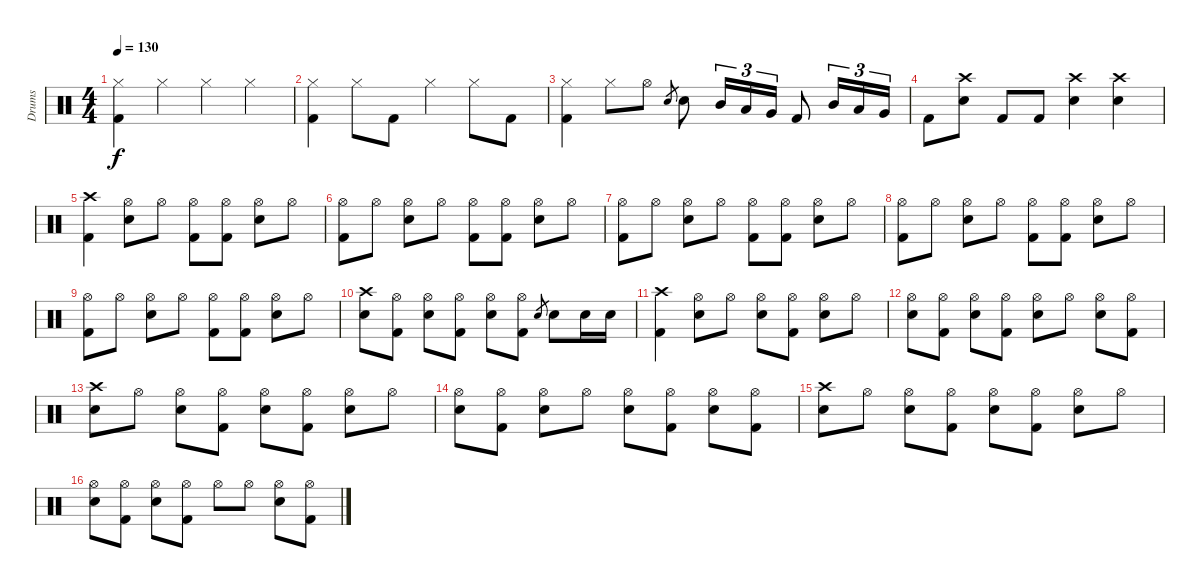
\track ("Drums" "Drums") {instrument percussion}
\staff {score}
\articulation defaults
\ts (4 4)
\tempo 130
\clef neutral
\ks c
("Hi-Hat (closed)" "Kick (hit) 2").4{dy f} "Hi-Hat (closed)".4 "Hi-Hat (closed)".4 "Hi-Hat (closed)".4 |
("Hi-Hat (closed)" "Kick (hit) 2").4 "Hi-Hat (closed)".8 "Kick (hit) 2".8 "Hi-Hat (closed)".4 "Hi-Hat (closed)".8 "Kick (hit) 2".8 |
("Hi-Hat (closed)" "Kick (hit) 2").4 "Hi-Hat (closed)".8 "Hi-Hat (open)".8 "Electric Snare (hit)".8{gr} "Electric Snare (hit)".8 "Mid Tom (hit)".16{tu (3 2)} "Low Tom (hit)".16{tu (3 2)} "Very Low Tom (hit)".16{tu (3 2)} "Kick (hit) 2".8 "Mid Tom (hit)".16{tu (3 2)} "Low Tom (hit)".16{tu (3 2)} "Very Low Tom (hit)".16{tu (3 2)} |
"Kick (hit) 2".8 ("Crash high (hit)" "Electric Snare (hit)").8 "Kick (hit) 2".8 "Kick (hit) 2".8 ("Crash high (hit)" "Electric Snare (hit)").4 ("Crash high (hit)" "Electric Snare (hit)").4 |
("Crash high (hit)" "Kick (hit) 2").4 ("Hi-Hat (open)" "Electric Snare (hit)").8 "Hi-Hat (open)".8 ("Hi-Hat (open)" "Kick (hit) 2").8 ("Hi-Hat (open)" "Kick (hit) 2").8 ("Hi-Hat (open)" "Electric Snare (hit)").8 "Hi-Hat (open)".8 |
("Hi-Hat (open)" "Kick (hit) 2").8 "Hi-Hat (open)".8 ("Hi-Hat (open)" "Electric Snare (hit)").8 "Hi-Hat (open)".8 ("Hi-Hat (open)" "Kick (hit) 2").8 ("Hi-Hat (open)" "Kick (hit) 2").8 ("Hi-Hat (open)" "Electric Snare (hit)").8 "Hi-Hat (open)".8 |
("Hi-Hat (open)" "Kick (hit) 2").8 "Hi-Hat (open)".8 ("Hi-Hat (open)" "Electric Snare (hit)").8 "Hi-Hat (open)".8 ("Hi-Hat (open)" "Kick (hit) 2").8 ("Hi-Hat (open)" "Kick (hit) 2").8 ("Hi-Hat (open)" "Electric Snare (hit)").8 "Hi-Hat (open)".8 |
("Hi-Hat (open)" "Kick (hit) 2").8 "Hi-Hat (open)".8 ("Hi-Hat (open)" "Electric Snare (hit)").8 "Hi-Hat (open)".8 ("Hi-Hat (open)" "Kick (hit) 2").8 ("Hi-Hat (open)" "Kick (hit) 2").8 ("Hi-Hat (open)" "Electric Snare (hit)").8 "Hi-Hat (open)".8 |
("Hi-Hat (open)" "Kick (hit) 2").8 "Hi-Hat (open)".8 ("Hi-Hat (open)" "Electric Snare (hit)").8 "Hi-Hat (open)".8 ("Hi-Hat (open)" "Kick (hit) 2").8 ("Hi-Hat (open)" "Kick (hit) 2").8 ("Hi-Hat (open)" "Electric Snare (hit)").8 "Hi-Hat (open)".8 |
("Crash high (hit)" "Electric Snare (hit)").8 ("Hi-Hat (open)" "Kick (hit) 2").8 ("Hi-Hat (open)" "Electric Snare (hit)").8 ("Hi-Hat (open)" "Kick (hit) 2").8 ("Hi-Hat (open)" "Electric Snare (hit)").8 ("Hi-Hat (open)" "Kick (hit) 2").8 "Electric Snare (hit)".8{gr} "Electric Snare (hit)".8 "Electric Snare (hit)".16 "Electric Snare (hit)".16 |
("Crash high (hit)" "Kick (hit) 2").4 ("Hi-Hat (open)" "Electric Snare (hit)").8 "Hi-Hat (open)".8 ("Hi-Hat (open)" "Electric Snare (hit)").8 ("Hi-Hat (open)" "Kick (hit) 2").8 ("Hi-Hat (open)" "Electric Snare (hit)").8 "Hi-Hat (open)".8 |
("Hi-Hat (open)" "Electric Snare (hit)").8 ("Hi-Hat (open)" "Kick (hit) 2").8 ("Hi-Hat (open)" "Electric Snare (hit)").8 ("Hi-Hat (open)" "Kick (hit) 2").8 ("Hi-Hat (open)" "Electric Snare (hit)").8 "Hi-Hat (open)".8 ("Hi-Hat (open)" "Electric Snare (hit)").8 ("Hi-Hat (open)" "Kick (hit) 2").8 |
("Crash high (hit)" "Electric Snare (hit)").8 "Hi-Hat (open)".8 ("Hi-Hat (open)" "Electric Snare (hit)").8 ("Hi-Hat (open)" "Kick (hit) 2").8 ("Hi-Hat (open)" "Electric Snare (hit)").8 ("Hi-Hat (open)" "Kick (hit) 2").8 ("Hi-Hat (open)" "Electric Snare (hit)").8 "Hi-Hat (open)".8 |
("Hi-Hat (open)" "Electric Snare (hit)").8 ("Hi-Hat (open)" "Kick (hit) 2").8 ("Hi-Hat (open)" "Electric Snare (hit)").8 "Hi-Hat (open)".8 ("Hi-Hat (open)" "Electric Snare (hit)").8 ("Hi-Hat (open)" "Kick (hit) 2").8 ("Hi-Hat (open)" "Electric Snare (hit)").8 ("Hi-Hat (open)" "Kick (hit) 2").8 |
("Crash high (hit)" "Electric Snare (hit)").8 "Hi-Hat (open)".8 ("Hi-Hat (open)" "Electric Snare (hit)").8 ("Hi-Hat (open)" "Kick (hit) 2").8 ("Hi-Hat (open)" "Electric Snare (hit)").8 ("Hi-Hat (open)" "Kick (hit) 2").8 ("Hi-Hat (open)" "Electric Snare (hit)").8 "Hi-Hat (open)".8 |
("Hi-Hat (open)" "Electric Snare (hit)").8 ("Hi-Hat (open)" "Kick (hit) 2").8 ("Hi-Hat (open)" "Electric Snare (hit)").8 ("Hi-Hat (open)" "Kick (hit) 2").8 "Hi-Hat (open)".8 "Hi-Hat (open)".8 ("Hi-Hat (open)" "Electric Snare (hit)").8 ("Hi-Hat (open)" "Kick (hit) 2").8
